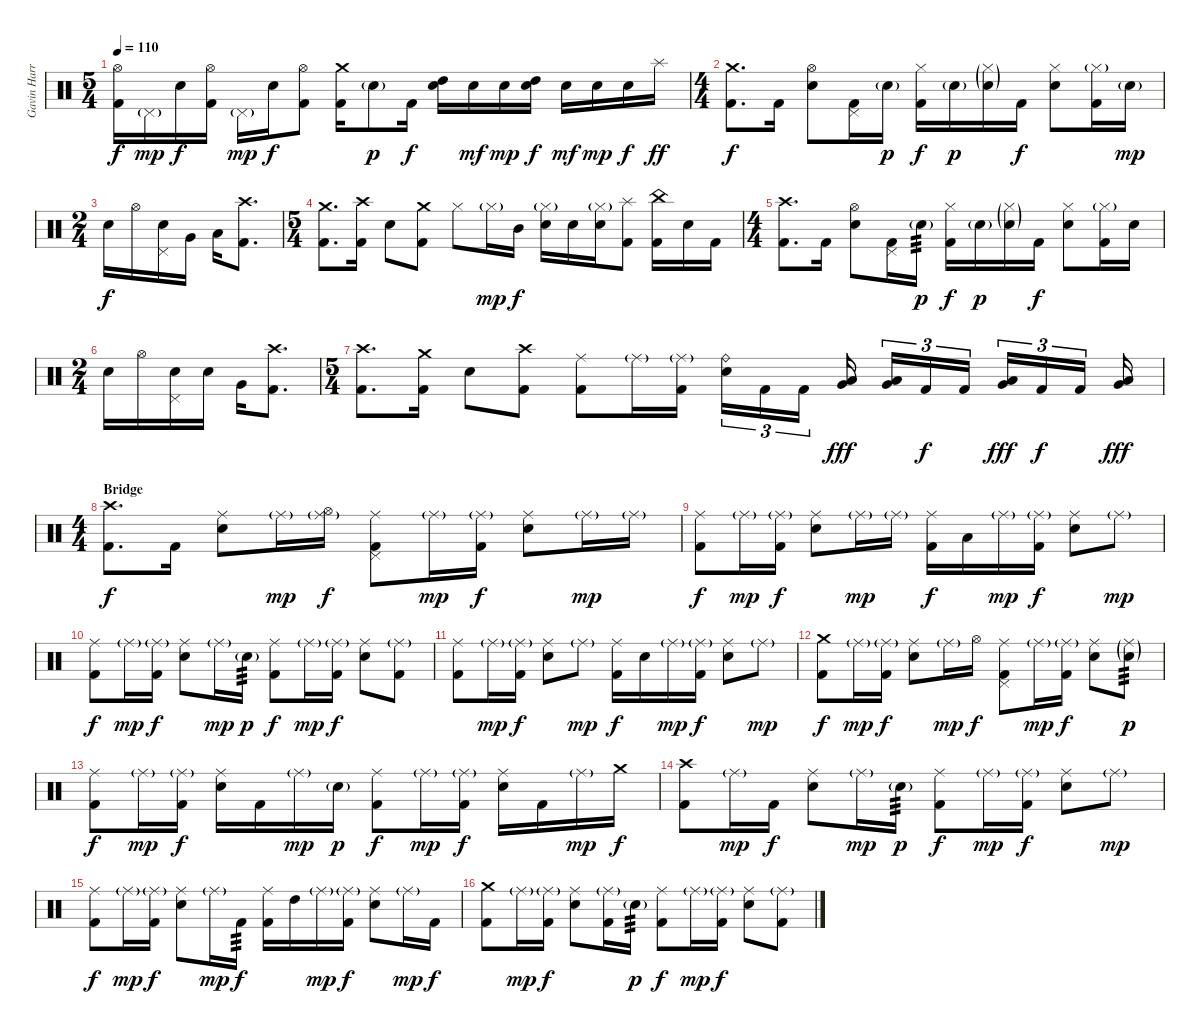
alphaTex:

\track ("Gavin Harrison - Drums" "Gavin Harr") {instrument percussion}
\staff {score}
\articulation defaults
\ts (5 4)
\tempo 110
\clef neutral
\ks c
("Hi-Hat (open)" "Kick (hit) 2").16{dy f} "Pedal Hi-Hat (hit)"{g}.16{dy mp} "Electric Snare (hit)".16{dy f} ("Hi-Hat (open)" "Kick (hit) 2").16 "Pedal Hi-Hat (hit)"{g}.16{dy mp} "Electric Snare (hit)".16{dy f} ("Hi-Hat (open)" "Kick (hit) 2").8 ("Crash medium (hit)" "Kick (hit) 2").16 "Electric Snare (hit)"{g}.8{dy p} "Kick (hit) 2".16{dy f} ("High Tom (hit)" "Electric Snare (hit)").16{bu 480} "Electric Snare (hit)".16{dy mf} "Electric Snare (hit)".16{dy mp} ("High Tom (hit)" "Electric Snare (hit)").16{bu 480 dy f} "Electric Snare (hit)".16{dy mf} "Electric Snare (hit)".16{dy mp} "Electric Snare (hit)".16{dy f} "Splash (hit)".16{dy ff} |
\ts (4 4)
("Crash medium (hit)" "Kick (hit) 2").8{d dy f} "Kick (hit) 2".16 ("Hi-Hat (open)" "Electric Snare (hit)").8 ("Pedal Hi-Hat (hit)" "Kick (hit) 2").16 "Electric Snare (hit)"{g}.16{dy p} ("Hi-Hat (closed)" "Kick (hit) 2").16{dy f} "Electric Snare (hit)"{g}.16{dy p} ("Hi-Hat (closed)"{g} "Electric Snare (hit)"{g}).16 "Kick (hit) 2".16{dy f} ("Hi-Hat (closed)" "Electric Snare (hit)").8 ("Hi-Hat (closed)"{g} "Kick (hit) 2").16 "Electric Snare (hit)"{g}.16{dy mp} |
\ts (2 4)
"Electric Snare (hit)".16{dy f} "Hi-Hat (open)".16 ("Pedal Hi-Hat (hit)" "Electric Snare (hit)").16 "Very Low Tom (hit)".16 "Low Floor Tom (hit)".16 ("Crash high (hit)" "Kick (hit) 2").8{d} |
\ts (5 4)
("Crash medium (hit)" "Kick (hit) 2").8{d} ("Crash high (hit)" "Kick (hit) 2").16 "Electric Snare (hit)".8 ("Crash medium (hit)" "Kick (hit) 2").8 "Hi-Hat (closed)".8 "Hi-Hat (closed)"{g}.16{dy mp} "Mid Tom (hit)".16{dy f} ("Hi-Hat (closed)"{g} "Electric Snare (hit)").16 "Electric Snare (hit)".16 ("Hi-Hat (closed)"{g} "Electric Snare (hit)").16 ("Splash (hit)" "Kick (hit) 2").8 ("China (hit)" "Kick (hit) 2").16 "Electric Snare (hit)".16 "Kick (hit) 2".16 |
\ts (4 4)
("Crash high (hit)" "Kick (hit) 2").8{d} "Kick (hit) 2".16 ("Hi-Hat (open)" "Electric Snare (hit)").8 ("Pedal Hi-Hat (hit)" "Kick (hit) 2").16 "Electric Snare (hit)"{g}.16{tp 3 dy p} ("Hi-Hat (closed)" "Kick (hit) 2").16{dy f} "Electric Snare (hit)"{g}.16{dy p} ("Hi-Hat (closed)"{g} "Electric Snare (hit)"{g}).16 "Kick (hit) 2".16{dy f} ("Hi-Hat (closed)" "Electric Snare (hit)").8 ("Hi-Hat (closed)"{g} "Kick (hit) 2").16 "Electric Snare (hit)".16 |
\ts (2 4)
"Electric Snare (hit)".16 "Hi-Hat (open)".16 ("Pedal Hi-Hat (hit)" "Electric Snare (hit)").16 "Electric Snare (hit)".16 "Very Low Tom (hit)".16 ("Crash high (hit)" "Kick (hit) 2").8{d} |
\ts (5 4)
("Crash high (hit)" "Kick (hit) 2").8{d} ("Crash medium (hit)" "Kick (hit) 2").16 "Electric Snare (hit)".8 ("Crash high (hit)" "Kick (hit) 2").8 ("Ride (middle)" "Kick (hit) 2").8 "Ride (middle)"{g}.16 ("Ride (middle)"{g} "Kick (hit) 2").16 ("Ride (bell)" "Electric Snare (hit)").16{tu (3 2)} "Kick (hit) 2".16{tu (3 2)} "Kick (hit) 2".16{tu (3 2)} ("Low Tom (hit)" "Very Low Tom (hit)").16{bd 480 dy fff} ("Low Tom (hit)" "Very Low Tom (hit)").16{tu (3 2) bd 480} "Kick (hit) 2".16{tu (3 2) dy f} "Kick (hit) 2".16{tu (3 2)} ("Low Tom (hit)" "Very Low Tom (hit)").16{tu (3 2) bd 480 dy fff} "Kick (hit) 2".16{tu (3 2) dy f} "Kick (hit) 2".16{tu (3 2)} ("Low Tom (hit)" "Very Low Tom (hit)").16{bd 480 dy fff} |
\ts (4 4)
\section ("" "Bridge")
("Crash high (hit)" "Kick (hit) 2").8{d dy f} "Kick (hit) 2".16 ("Ride (middle)" "Electric Snare (hit)").8 "Ride (middle)"{g}.16{dy mp} ("Ride (middle)"{g} "Hi-Hat (open)").16{dy f} ("Ride (middle)" "Pedal Hi-Hat (hit)" "Kick (hit) 2").8 "Ride (middle)"{g}.16{dy mp} ("Ride (middle)"{g} "Kick (hit) 2").16{dy f} ("Ride (middle)" "Electric Snare (hit)").8 "Ride (middle)"{g}.16{dy mp} "Ride (middle)"{g}.16 |
("Ride (middle)" "Kick (hit) 2").8{dy f} "Ride (middle)"{g}.16{dy mp} ("Ride (middle)"{g} "Kick (hit) 2").16{dy f} ("Ride (middle)" "Electric Snare (hit)").8 "Ride (middle)"{g}.16{dy mp} "Ride (middle)"{g}.16 ("Ride (middle)" "Kick (hit) 2").16{dy f} "Low Tom (hit)".16 "Ride (middle)"{g}.16{dy mp} ("Ride (middle)"{g} "Kick (hit) 2").16{dy f} ("Ride (middle)" "Electric Snare (hit)").8 "Ride (middle)"{g}.8{dy mp} |
("Ride (middle)" "Kick (hit) 2").8{dy f} "Ride (middle)"{g}.16{dy mp} ("Ride (middle)"{g} "Kick (hit) 2").16{dy f} ("Ride (middle)" "Electric Snare (hit)").8 "Ride (middle)"{g}.16{dy mp} "Electric Snare (hit)"{g}.16{tp 3 dy p} ("Ride (middle)" "Kick (hit) 2").8{dy f} "Ride (middle)"{g}.16{dy mp} ("Ride (middle)"{g} "Kick (hit) 2").16{dy f} ("Ride (middle)" "Electric Snare (hit)").8 ("Ride (middle)"{g} "Kick (hit) 2").8 |
("Ride (middle)" "Kick (hit) 2").8 "Ride (middle)"{g}.16{dy mp} ("Ride (middle)"{g} "Kick (hit) 2").16{dy f} ("Ride (middle)" "Electric Snare (hit)").8 "Ride (middle)"{g}.8{dy mp} ("Ride (middle)" "Kick (hit) 2").16{dy f} "Electric Snare (hit)".16 "Ride (middle)"{g}.16{dy mp} ("Ride (middle)"{g} "Kick (hit) 2").16{dy f} ("Ride (middle)" "Electric Snare (hit)").8 "Ride (middle)"{g}.8{dy mp} |
("Crash medium (hit)" "Kick (hit) 2").8{dy f} "Ride (middle)"{g}.16{dy mp} ("Ride (middle)"{g} "Kick (hit) 2").16{dy f} ("Ride (middle)" "Electric Snare (hit)").8 "Ride (middle)"{g}.16{dy mp} "Hi-Hat (open)".16{dy f} ("Ride (middle)" "Pedal Hi-Hat (hit)" "Kick (hit) 2").8 "Ride (middle)"{g}.16{dy mp} ("Ride (middle)"{g} "Kick (hit) 2").16{dy f} ("Ride (middle)" "Electric Snare (hit)").8 ("Ride (middle)"{g} "Electric Snare (hit)"{g}).8{tp 3 dy p} |
("Ride (middle)" "Kick (hit) 2").8{dy f} "Ride (middle)"{g}.16{dy mp} ("Ride (middle)"{g} "Kick (hit) 2").16{dy f} ("Ride (middle)" "Electric Snare (hit)").16 "Kick (hit) 2".16 "Ride (middle)"{g}.16{dy mp} "Electric Snare (hit)"{g}.16{dy p} ("Ride (middle)" "Kick (hit) 2").8{dy f} "Ride (middle)"{g}.16{dy mp} ("Ride (middle)"{g} "Kick (hit) 2").16{dy f} ("Ride (middle)" "Electric Snare (hit)").16 "Kick (hit) 2".16 "Ride (middle)"{g}.16{dy mp} "Crash medium (hit)".16{dy f} |
("Crash high (hit)" "Kick (hit) 2").8 "Ride (middle)"{g}.16{dy mp} "Kick (hit) 2".16{dy f} ("Ride (middle)" "Electric Snare (hit)").8 "Ride (middle)"{g}.16{dy mp} "Electric Snare (hit)"{g}.16{tp 3 dy p} ("Ride (middle)" "Kick (hit) 2").8{dy f} "Ride (middle)"{g}.16{dy mp} ("Ride (middle)"{g} "Kick (hit) 2").16{dy f} ("Ride (middle)" "Electric Snare (hit)").8 "Ride (middle)"{g}.8{dy mp} |
("Ride (middle)" "Kick (hit) 2").8{dy f} "Ride (middle)"{g}.16{dy mp} ("Ride (middle)"{g} "Kick (hit) 2").16{dy f} ("Ride (middle)" "Electric Snare (hit)").8 "Ride (middle)"{g}.16{dy mp} "Kick (hit) 2".16{tp 3 dy f} ("Ride (middle)" "Kick (hit) 2").16 "High Tom (hit)".16 "Ride (middle)"{g}.16{dy mp} ("Ride (middle)"{g} "Kick (hit) 2").16{dy f} ("Ride (middle)" "Electric Snare (hit)").8 "Ride (middle)"{g}.16{dy mp} "Kick (hit) 2".16{dy f} |
("Crash medium (hit)" "Kick (hit) 2").8 "Ride (middle)"{g}.16{dy mp} ("Ride (middle)"{g} "Kick (hit) 2").16{dy f} ("Ride (middle)" "Electric Snare (hit)").8 ("Ride (middle)"{g} "Kick (hit) 2").16 "Electric Snare (hit)"{g}.16{tp 3 dy p} ("Ride (middle)" "Kick (hit) 2").8{dy f} "Ride (middle)"{g}.16{dy mp} ("Ride (middle)"{g} "Kick (hit) 2").16{dy f} ("Ride (middle)" "Electric Snare (hit)").8 ("Ride (middle)"{g} "Kick (hit) 2").8
